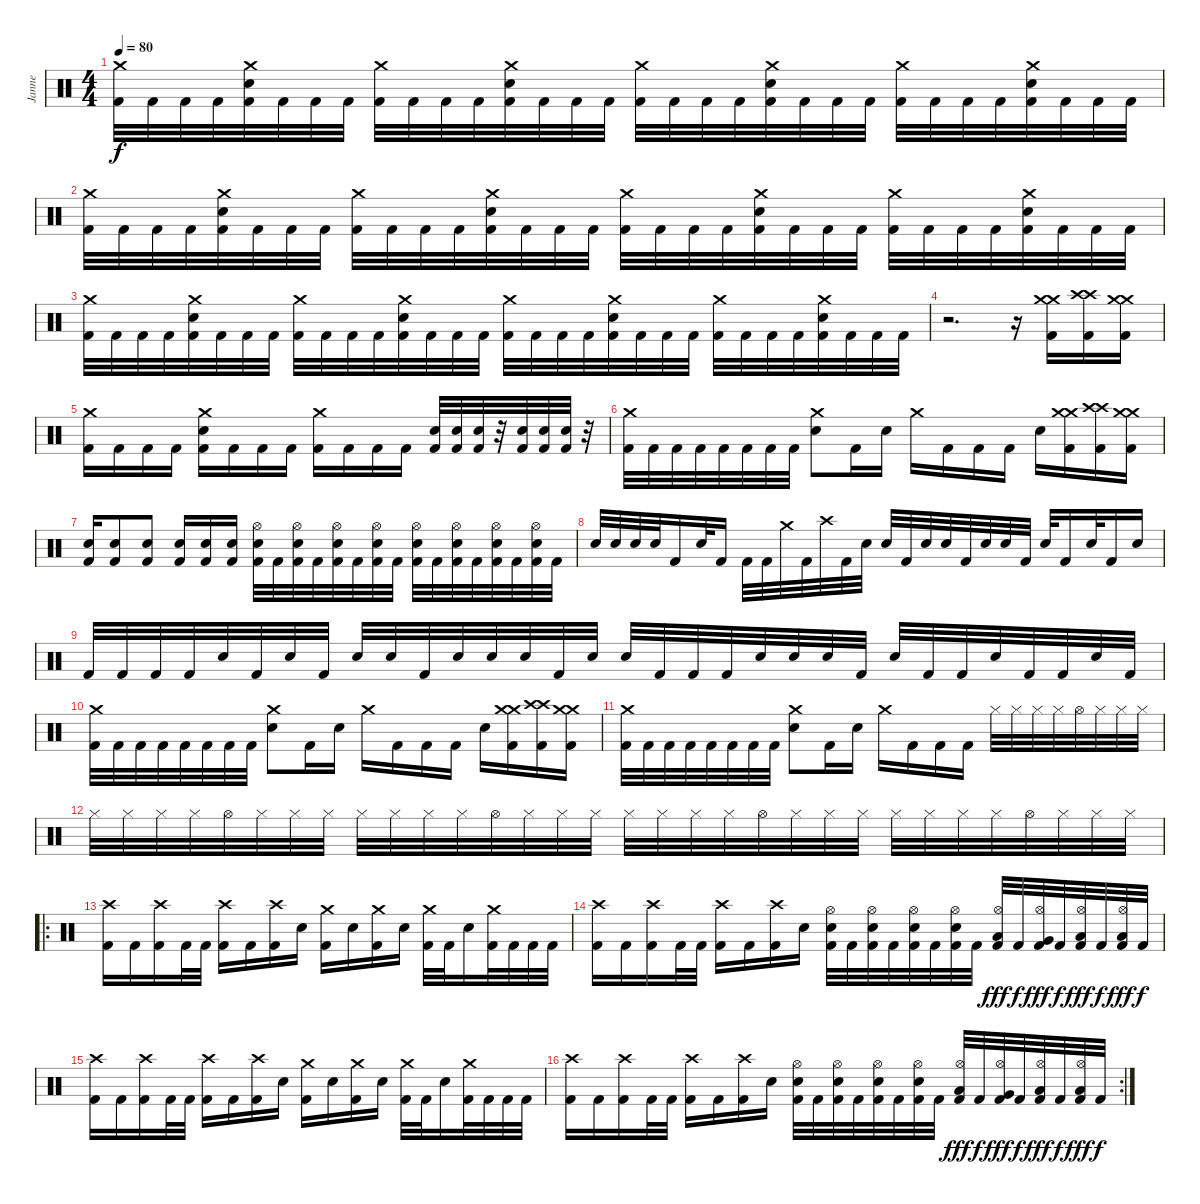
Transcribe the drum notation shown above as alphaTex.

\track ("Janne" "Janne") {instrument percussion}
\staff {score}
\articulation defaults
\ts (4 4)
\tempo 80
\clef neutral
\ks c
("Crash medium (hit)" "Kick (hit) 2").32{dy f} "Kick (hit) 2".32 "Kick (hit) 2".32 "Kick (hit) 2".32 ("Crash medium (hit)" "Electric Snare (hit)" "Kick (hit) 2").32 "Kick (hit) 2".32 "Kick (hit) 2".32 "Kick (hit) 2".32 ("Crash medium (hit)" "Kick (hit) 2").32 "Kick (hit) 2".32 "Kick (hit) 2".32 "Kick (hit) 2".32 ("Crash medium (hit)" "Electric Snare (hit)" "Kick (hit) 2").32 "Kick (hit) 2".32 "Kick (hit) 2".32 "Kick (hit) 2".32 ("Crash medium (hit)" "Kick (hit) 2").32 "Kick (hit) 2".32 "Kick (hit) 2".32 "Kick (hit) 2".32 ("Crash medium (hit)" "Electric Snare (hit)" "Kick (hit) 2").32 "Kick (hit) 2".32 "Kick (hit) 2".32 "Kick (hit) 2".32 ("Crash medium (hit)" "Kick (hit) 2").32 "Kick (hit) 2".32 "Kick (hit) 2".32 "Kick (hit) 2".32 ("Crash medium (hit)" "Electric Snare (hit)" "Kick (hit) 2").32 "Kick (hit) 2".32 "Kick (hit) 2".32 "Kick (hit) 2".32 |
("Crash medium (hit)" "Kick (hit) 2").32 "Kick (hit) 2".32 "Kick (hit) 2".32 "Kick (hit) 2".32 ("Crash medium (hit)" "Electric Snare (hit)" "Kick (hit) 2").32 "Kick (hit) 2".32 "Kick (hit) 2".32 "Kick (hit) 2".32 ("Crash medium (hit)" "Kick (hit) 2").32 "Kick (hit) 2".32 "Kick (hit) 2".32 "Kick (hit) 2".32 ("Crash medium (hit)" "Electric Snare (hit)" "Kick (hit) 2").32 "Kick (hit) 2".32 "Kick (hit) 2".32 "Kick (hit) 2".32 ("Crash medium (hit)" "Kick (hit) 2").32 "Kick (hit) 2".32 "Kick (hit) 2".32 "Kick (hit) 2".32 ("Crash medium (hit)" "Electric Snare (hit)" "Kick (hit) 2").32 "Kick (hit) 2".32 "Kick (hit) 2".32 "Kick (hit) 2".32 ("Crash medium (hit)" "Kick (hit) 2").32 "Kick (hit) 2".32 "Kick (hit) 2".32 "Kick (hit) 2".32 ("Crash medium (hit)" "Electric Snare (hit)" "Kick (hit) 2").32 "Kick (hit) 2".32 "Kick (hit) 2".32 "Kick (hit) 2".32 |
("Crash medium (hit)" "Kick (hit) 2").32 "Kick (hit) 2".32 "Kick (hit) 2".32 "Kick (hit) 2".32 ("Crash medium (hit)" "Electric Snare (hit)" "Kick (hit) 2").32 "Kick (hit) 2".32 "Kick (hit) 2".32 "Kick (hit) 2".32 ("Crash medium (hit)" "Kick (hit) 2").32 "Kick (hit) 2".32 "Kick (hit) 2".32 "Kick (hit) 2".32 ("Crash medium (hit)" "Electric Snare (hit)" "Kick (hit) 2").32 "Kick (hit) 2".32 "Kick (hit) 2".32 "Kick (hit) 2".32 ("Crash medium (hit)" "Kick (hit) 2").32 "Kick (hit) 2".32 "Kick (hit) 2".32 "Kick (hit) 2".32 ("Crash medium (hit)" "Electric Snare (hit)" "Kick (hit) 2").32 "Kick (hit) 2".32 "Kick (hit) 2".32 "Kick (hit) 2".32 ("Crash medium (hit)" "Kick (hit) 2").32 "Kick (hit) 2".32 "Kick (hit) 2".32 "Kick (hit) 2".32 ("Crash medium (hit)" "Electric Snare (hit)" "Kick (hit) 2").32 "Kick (hit) 2".32 "Kick (hit) 2".32 "Kick (hit) 2".32 |
r.2{d} r.16 ("Crash medium (hit)" "Crash medium (hit)" "Kick (hit) 2").16 ("Crash high (hit)" "Crash high (hit)" "Kick (hit) 2").16 ("Crash medium (hit)" "Crash medium (hit)" "Kick (hit) 2").16 |
("Crash medium (hit)" "Kick (hit) 2").16 "Kick (hit) 2".16 "Kick (hit) 2".16 "Kick (hit) 2".16 ("Crash medium (hit)" "Electric Snare (hit)" "Kick (hit) 2").16 "Kick (hit) 2".16 "Kick (hit) 2".16 "Kick (hit) 2".16 ("Crash medium (hit)" "Kick (hit) 2").16 "Kick (hit) 2".16 "Kick (hit) 2".16 "Kick (hit) 2".16 ("Electric Snare (hit)" "Kick (hit) 2").32 ("Electric Snare (hit)" "Kick (hit) 2").32 ("Electric Snare (hit)" "Kick (hit) 2").32 r.32 ("Electric Snare (hit)" "Kick (hit) 2").32 ("Electric Snare (hit)" "Kick (hit) 2").32 ("Electric Snare (hit)" "Kick (hit) 2").32 r.32 |
("Crash medium (hit)" "Kick (hit) 2").32 "Kick (hit) 2".32 "Kick (hit) 2".32 "Kick (hit) 2".32 "Kick (hit) 2".32 "Kick (hit) 2".32 "Kick (hit) 2".32 "Kick (hit) 2".32 ("Crash medium (hit)" "Electric Snare (hit)").8 "Kick (hit) 2".16 "Electric Snare (hit)".16 "Crash medium (hit)".16 "Kick (hit) 2".16 "Kick (hit) 2".16 "Kick (hit) 2".16 "Electric Snare (hit)".16 ("Crash medium (hit)" "Crash medium (hit)" "Kick (hit) 2").16 ("Crash high (hit)" "Crash high (hit)" "Kick (hit) 2").16 ("Crash medium (hit)" "Crash medium (hit)" "Kick (hit) 2").16 |
("Electric Snare (hit)" "Kick (hit) 2").16 ("Electric Snare (hit)" "Kick (hit) 2").8 ("Electric Snare (hit)" "Kick (hit) 2").8 ("Electric Snare (hit)" "Kick (hit) 2").16 ("Electric Snare (hit)" "Kick (hit) 2").16 ("Electric Snare (hit)" "Kick (hit) 2").16 ("Hi-Hat (open)" "Electric Snare (hit)" "Kick (hit) 2").32 "Kick (hit) 2".32 ("Hi-Hat (open)" "Electric Snare (hit)" "Kick (hit) 2").32 "Kick (hit) 2".32 ("Hi-Hat (open)" "Electric Snare (hit)" "Kick (hit) 2").32 "Kick (hit) 2".32 ("Hi-Hat (open)" "Electric Snare (hit)" "Kick (hit) 2").32 "Kick (hit) 2".32 ("Hi-Hat (open)" "Electric Snare (hit)" "Kick (hit) 2").32 "Kick (hit) 2".32 ("Hi-Hat (open)" "Electric Snare (hit)" "Kick (hit) 2").32 "Kick (hit) 2".32 ("Hi-Hat (open)" "Electric Snare (hit)" "Kick (hit) 2").32 "Kick (hit) 2".32 ("Hi-Hat (open)" "Electric Snare (hit)" "Kick (hit) 2").32 "Kick (hit) 2".32 |
"Electric Snare (hit)".32 "Electric Snare (hit)".32 "Electric Snare (hit)".32 "Electric Snare (hit)".32 "Kick (hit) 2".16 "Electric Snare (hit)".32 "Kick (hit) 2".16 "Kick (hit) 2".32 "Kick (hit) 2".32 "Crash medium (hit)".32 "Kick (hit) 2".32 "Crash high (hit)".32 "Kick (hit) 2".32 "Electric Snare (hit)".32 "Electric Snare (hit)".32 "Kick (hit) 2".32 "Electric Snare (hit)".32 "Electric Snare (hit)".32 "Kick (hit) 2".32 "Electric Snare (hit)".32 "Electric Snare (hit)".32 "Kick (hit) 2".32 "Electric Snare (hit)".32 "Kick (hit) 2".16 "Electric Snare (hit)".32 "Kick (hit) 2".16 "Electric Snare (hit)".16 |
"Kick (hit) 2".32 "Kick (hit) 2".32 "Kick (hit) 2".32 "Kick (hit) 2".32 "Electric Snare (hit)".32 "Kick (hit) 2".32 "Electric Snare (hit)".32 "Kick (hit) 2".32 "Electric Snare (hit)".32 "Electric Snare (hit)".32 "Kick (hit) 2".32 "Electric Snare (hit)".32 "Electric Snare (hit)".32 "Electric Snare (hit)".32 "Kick (hit) 2".32 "Electric Snare (hit)".32 "Electric Snare (hit)".32 "Kick (hit) 2".32 "Kick (hit) 2".32 "Kick (hit) 2".32 "Electric Snare (hit)".32 "Electric Snare (hit)".32 "Electric Snare (hit)".32 "Kick (hit) 2".32 "Electric Snare (hit)".32 "Kick (hit) 2".32 "Kick (hit) 2".32 "Electric Snare (hit)".32 "Kick (hit) 2".32 "Kick (hit) 2".32 "Electric Snare (hit)".32 "Kick (hit) 2".32 |
("Crash medium (hit)" "Kick (hit) 2").32 "Kick (hit) 2".32 "Kick (hit) 2".32 "Kick (hit) 2".32 "Kick (hit) 2".32 "Kick (hit) 2".32 "Kick (hit) 2".32 "Kick (hit) 2".32 ("Crash medium (hit)" "Electric Snare (hit)").8 "Kick (hit) 2".16 "Electric Snare (hit)".16 "Crash medium (hit)".16 "Kick (hit) 2".16 "Kick (hit) 2".16 "Kick (hit) 2".16 "Electric Snare (hit)".16 ("Crash medium (hit)" "Crash medium (hit)" "Kick (hit) 2").16 ("Crash high (hit)" "Crash high (hit)" "Kick (hit) 2").16 ("Crash medium (hit)" "Crash medium (hit)" "Kick (hit) 2").16 |
("Crash medium (hit)" "Kick (hit) 2").32 "Kick (hit) 2".32 "Kick (hit) 2".32 "Kick (hit) 2".32 "Kick (hit) 2".32 "Kick (hit) 2".32 "Kick (hit) 2".32 "Kick (hit) 2".32 ("Crash medium (hit)" "Electric Snare (hit)").8 "Kick (hit) 2".16 "Electric Snare (hit)".16 "Crash medium (hit)".16 "Kick (hit) 2".16 "Kick (hit) 2".16 "Kick (hit) 2".16 "Hi-Hat (closed)".32 "Hi-Hat (closed)".32 "Hi-Hat (closed)".32 "Hi-Hat (closed)".32 "Hi-Hat (open)".32 "Hi-Hat (closed)".32 "Hi-Hat (closed)".32 "Hi-Hat (closed)".32 |
"Hi-Hat (closed)".32 "Hi-Hat (closed)".32 "Hi-Hat (closed)".32 "Hi-Hat (closed)".32 "Hi-Hat (open)".32 "Hi-Hat (closed)".32 "Hi-Hat (closed)".32 "Hi-Hat (closed)".32 "Hi-Hat (closed)".32 "Hi-Hat (closed)".32 "Hi-Hat (closed)".32 "Hi-Hat (closed)".32 "Hi-Hat (open)".32 "Hi-Hat (closed)".32 "Hi-Hat (closed)".32 "Hi-Hat (closed)".32 "Hi-Hat (closed)".32 "Hi-Hat (closed)".32 "Hi-Hat (closed)".32 "Hi-Hat (closed)".32 "Hi-Hat (open)".32 "Hi-Hat (closed)".32 "Hi-Hat (closed)".32 "Hi-Hat (closed)".32 "Hi-Hat (closed)".32 "Hi-Hat (closed)".32 "Hi-Hat (closed)".32 "Hi-Hat (closed)".32 "Hi-Hat (open)".32 "Hi-Hat (closed)".32 "Hi-Hat (closed)".32 "Hi-Hat (closed)".32 |
\ro
("Crash high (hit)" "Kick (hit) 2").16 "Kick (hit) 2".16 ("Crash high (hit)" "Kick (hit) 2").16 "Kick (hit) 2".32 "Kick (hit) 2".32 ("Crash high (hit)" "Kick (hit) 2").16 "Kick (hit) 2".16 ("Crash high (hit)" "Kick (hit) 2").16 "Electric Snare (hit)".16 ("Crash medium (hit)" "Kick (hit) 2").16 "Electric Snare (hit)".16 ("Crash medium (hit)" "Kick (hit) 2").16 "Electric Snare (hit)".16 ("Crash medium (hit)" "Kick (hit) 2").32 "Kick (hit) 2".32 "Electric Snare (hit)".16 ("Crash medium (hit)" "Kick (hit) 2").32 "Kick (hit) 2".32 "Kick (hit) 2".32 "Kick (hit) 2".32 |
("Crash high (hit)" "Kick (hit) 2").16 "Kick (hit) 2".16 ("Crash high (hit)" "Kick (hit) 2").16 "Kick (hit) 2".32 "Kick (hit) 2".32 ("Crash high (hit)" "Kick (hit) 2").16 "Kick (hit) 2".16 ("Crash high (hit)" "Kick (hit) 2").16 "Electric Snare (hit)".16 ("Hi-Hat (open)" "Electric Snare (hit)" "Kick (hit) 2").32 "Kick (hit) 2".32 ("Hi-Hat (open)" "Electric Snare (hit)" "Kick (hit) 2").32 "Kick (hit) 2".32 ("Hi-Hat (open)" "Electric Snare (hit)" "Kick (hit) 2").32 "Kick (hit) 2".32 ("Hi-Hat (open)" "Electric Snare (hit)" "Kick (hit) 2").32 "Kick (hit) 2".32 ("Hi-Hat (open)" "Low Tom (hit)" "Kick (hit) 2").32{dy fff} "Kick (hit) 2".32{dy f} ("Hi-Hat (open)" "Very Low Tom (hit)" "Kick (hit) 2").32{dy fff} "Kick (hit) 2".32{dy f} ("Hi-Hat (open)" "Low Floor Tom (hit)" "Kick (hit) 2").32{dy fff} "Kick (hit) 2".32{dy f} ("Hi-Hat (open)" "Low Floor Tom (hit)" "Kick (hit) 2").32{dy fff} "Kick (hit) 2".32{dy f} |
("Crash high (hit)" "Kick (hit) 2").16 "Kick (hit) 2".16 ("Crash high (hit)" "Kick (hit) 2").16 "Kick (hit) 2".32 "Kick (hit) 2".32 ("Crash high (hit)" "Kick (hit) 2").16 "Kick (hit) 2".16 ("Crash high (hit)" "Kick (hit) 2").16 "Electric Snare (hit)".16 ("Crash medium (hit)" "Kick (hit) 2").16 "Electric Snare (hit)".16 ("Crash medium (hit)" "Kick (hit) 2").16 "Electric Snare (hit)".16 ("Crash medium (hit)" "Kick (hit) 2").32 "Kick (hit) 2".32 "Electric Snare (hit)".16 ("Crash medium (hit)" "Kick (hit) 2").32 "Kick (hit) 2".32 "Kick (hit) 2".32 "Kick (hit) 2".32 |
\rc 2
("Crash high (hit)" "Kick (hit) 2").16 "Kick (hit) 2".16 ("Crash high (hit)" "Kick (hit) 2").16 "Kick (hit) 2".32 "Kick (hit) 2".32 ("Crash high (hit)" "Kick (hit) 2").16 "Kick (hit) 2".16 ("Crash high (hit)" "Kick (hit) 2").16 "Electric Snare (hit)".16 ("Hi-Hat (open)" "Electric Snare (hit)" "Kick (hit) 2").32 "Kick (hit) 2".32 ("Hi-Hat (open)" "Electric Snare (hit)" "Kick (hit) 2").32 "Kick (hit) 2".32 ("Hi-Hat (open)" "Electric Snare (hit)" "Kick (hit) 2").32 "Kick (hit) 2".32 ("Hi-Hat (open)" "Electric Snare (hit)" "Kick (hit) 2").32 "Kick (hit) 2".32 ("Hi-Hat (open)" "Low Tom (hit)" "Kick (hit) 2").32{dy fff} "Kick (hit) 2".32{dy f} ("Hi-Hat (open)" "Very Low Tom (hit)" "Kick (hit) 2").32{dy fff} "Kick (hit) 2".32{dy f} ("Hi-Hat (open)" "Low Floor Tom (hit)" "Kick (hit) 2").32{dy fff} "Kick (hit) 2".32{dy f} ("Hi-Hat (open)" "Low Floor Tom (hit)" "Kick (hit) 2").32{dy fff} "Kick (hit) 2".32{dy f}
